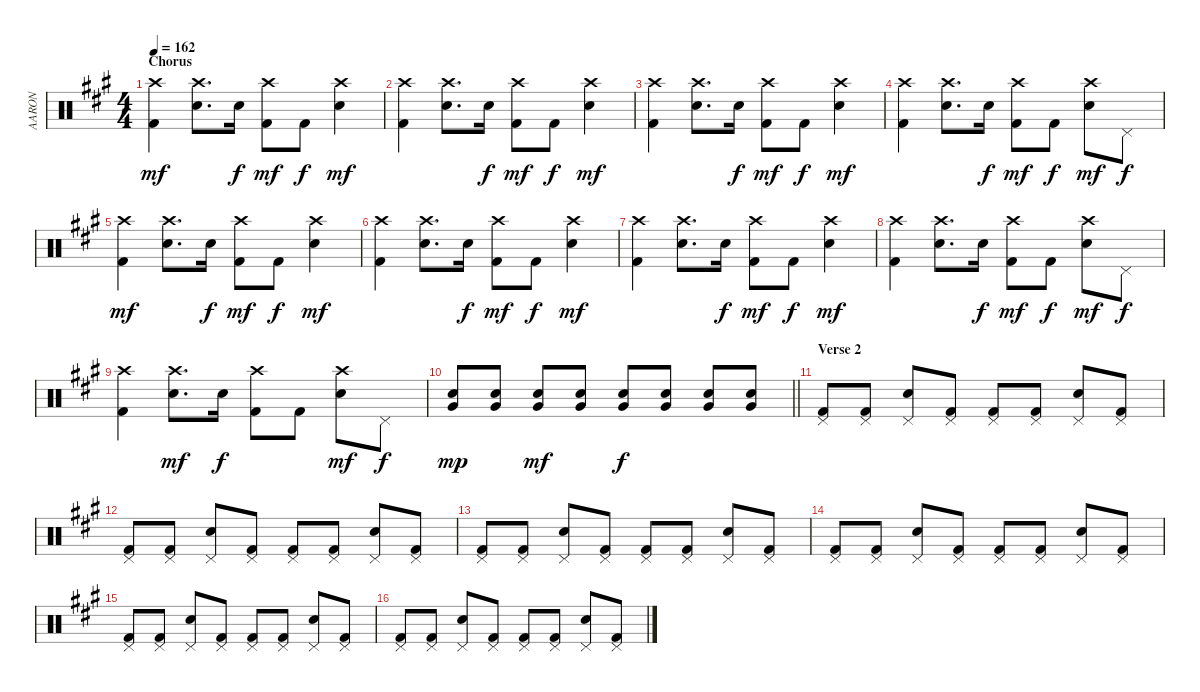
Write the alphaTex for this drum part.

\track ("AARON" "AARON") {instrument percussion}
\staff {score}
\articulation defaults
\ts (4 4)
\section ("" "Chorus")
\tempo 162
\clef neutral
\ks a
("Crash high (hit)" "Kick (hit) 2").4{dy mf} ("Crash high (hit)" "Electric Snare (hit)").8{d} "Electric Snare (hit)".16{dy f} ("Crash high (hit)" "Kick (hit) 2").8{dy mf} "Kick (hit) 2".8{dy f} ("Crash high (hit)" "Electric Snare (hit)").4{dy mf} |
("Crash high (hit)" "Kick (hit) 2").4 ("Crash high (hit)" "Electric Snare (hit)").8{d} "Electric Snare (hit)".16{dy f} ("Crash high (hit)" "Kick (hit) 2").8{dy mf} "Kick (hit) 2".8{dy f} ("Crash high (hit)" "Electric Snare (hit)").4{dy mf} |
("Crash high (hit)" "Kick (hit) 2").4 ("Crash high (hit)" "Electric Snare (hit)").8{d} "Electric Snare (hit)".16{dy f} ("Crash high (hit)" "Kick (hit) 2").8{dy mf} "Kick (hit) 2".8{dy f} ("Crash high (hit)" "Electric Snare (hit)").4{dy mf} |
("Crash high (hit)" "Kick (hit) 2").4 ("Crash high (hit)" "Electric Snare (hit)").8{d} "Electric Snare (hit)".16{dy f} ("Crash high (hit)" "Kick (hit) 2").8{dy mf} "Kick (hit) 2".8{dy f} ("Crash high (hit)" "Electric Snare (hit)").8{dy mf} "Pedal Hi-Hat (hit)".8{dy f} |
("Crash high (hit)" "Kick (hit) 2").4{dy mf} ("Crash high (hit)" "Electric Snare (hit)").8{d} "Electric Snare (hit)".16{dy f} ("Crash high (hit)" "Kick (hit) 2").8{dy mf} "Kick (hit) 2".8{dy f} ("Crash high (hit)" "Electric Snare (hit)").4{dy mf} |
("Crash high (hit)" "Kick (hit) 2").4 ("Crash high (hit)" "Electric Snare (hit)").8{d} "Electric Snare (hit)".16{dy f} ("Crash high (hit)" "Kick (hit) 2").8{dy mf} "Kick (hit) 2".8{dy f} ("Crash high (hit)" "Electric Snare (hit)").4{dy mf} |
("Crash high (hit)" "Kick (hit) 2").4 ("Crash high (hit)" "Electric Snare (hit)").8{d} "Electric Snare (hit)".16{dy f} ("Crash high (hit)" "Kick (hit) 2").8{dy mf} "Kick (hit) 2".8{dy f} ("Crash high (hit)" "Electric Snare (hit)").4{dy mf} |
("Crash high (hit)" "Kick (hit) 2").4 ("Crash high (hit)" "Electric Snare (hit)").8{d} "Electric Snare (hit)".16{dy f} ("Crash high (hit)" "Kick (hit) 2").8{dy mf} "Kick (hit) 2".8{dy f} ("Crash high (hit)" "Electric Snare (hit)").8{dy mf} "Pedal Hi-Hat (hit)".8{dy f} |
("Crash high (hit)" "Kick (hit) 2").4 ("Crash high (hit)" "Electric Snare (hit)").8{d dy mf} "Electric Snare (hit)".16{dy f} ("Crash high (hit)" "Kick (hit) 2").8 "Kick (hit) 2".8 ("Crash high (hit)" "Electric Snare (hit)").8{dy mf} "Pedal Hi-Hat (hit)".8{dy f} |
\barLineRight lightlight
("Electric Snare (hit)" "Very Low Tom (hit)").8{dy mp} ("Electric Snare (hit)" "Very Low Tom (hit)").8 ("Electric Snare (hit)" "Very Low Tom (hit)").8{dy mf} ("Electric Snare (hit)" "Very Low Tom (hit)").8 ("Electric Snare (hit)" "Very Low Tom (hit)").8{dy f} ("Electric Snare (hit)" "Very Low Tom (hit)").8 ("Electric Snare (hit)" "Very Low Tom (hit)").8 ("Electric Snare (hit)" "Very Low Tom (hit)").8 |
\section ("" "Verse 2")
("Pedal Hi-Hat (hit)" "Kick (hit) 2").8 ("Pedal Hi-Hat (hit)" "Kick (hit) 2").8 ("Pedal Hi-Hat (hit)" "Electric Snare (hit)").8 ("Pedal Hi-Hat (hit)" "Kick (hit) 2").8 ("Pedal Hi-Hat (hit)" "Kick (hit) 2").8 ("Pedal Hi-Hat (hit)" "Kick (hit) 2").8 ("Pedal Hi-Hat (hit)" "Electric Snare (hit)").8 ("Pedal Hi-Hat (hit)" "Kick (hit) 2").8 |
("Pedal Hi-Hat (hit)" "Kick (hit) 2").8 ("Pedal Hi-Hat (hit)" "Kick (hit) 2").8 ("Pedal Hi-Hat (hit)" "Electric Snare (hit)").8 ("Pedal Hi-Hat (hit)" "Kick (hit) 2").8 ("Pedal Hi-Hat (hit)" "Kick (hit) 2").8 ("Pedal Hi-Hat (hit)" "Kick (hit) 2").8 ("Pedal Hi-Hat (hit)" "Electric Snare (hit)").8 ("Pedal Hi-Hat (hit)" "Kick (hit) 2").8 |
("Pedal Hi-Hat (hit)" "Kick (hit) 2").8 ("Pedal Hi-Hat (hit)" "Kick (hit) 2").8 ("Pedal Hi-Hat (hit)" "Electric Snare (hit)").8 ("Pedal Hi-Hat (hit)" "Kick (hit) 2").8 ("Pedal Hi-Hat (hit)" "Kick (hit) 2").8 ("Pedal Hi-Hat (hit)" "Kick (hit) 2").8 ("Pedal Hi-Hat (hit)" "Electric Snare (hit)").8 ("Pedal Hi-Hat (hit)" "Kick (hit) 2").8 |
("Pedal Hi-Hat (hit)" "Kick (hit) 2").8 ("Pedal Hi-Hat (hit)" "Kick (hit) 2").8 ("Pedal Hi-Hat (hit)" "Electric Snare (hit)").8 ("Pedal Hi-Hat (hit)" "Kick (hit) 2").8 ("Pedal Hi-Hat (hit)" "Kick (hit) 2").8 ("Pedal Hi-Hat (hit)" "Kick (hit) 2").8 ("Pedal Hi-Hat (hit)" "Electric Snare (hit)").8 ("Pedal Hi-Hat (hit)" "Kick (hit) 2").8 |
("Pedal Hi-Hat (hit)" "Kick (hit) 2").8 ("Pedal Hi-Hat (hit)" "Kick (hit) 2").8 ("Pedal Hi-Hat (hit)" "Electric Snare (hit)").8 ("Pedal Hi-Hat (hit)" "Kick (hit) 2").8 ("Pedal Hi-Hat (hit)" "Kick (hit) 2").8 ("Pedal Hi-Hat (hit)" "Kick (hit) 2").8 ("Pedal Hi-Hat (hit)" "Electric Snare (hit)").8 ("Pedal Hi-Hat (hit)" "Kick (hit) 2").8 |
("Pedal Hi-Hat (hit)" "Kick (hit) 2").8 ("Pedal Hi-Hat (hit)" "Kick (hit) 2").8 ("Pedal Hi-Hat (hit)" "Electric Snare (hit)").8 ("Pedal Hi-Hat (hit)" "Kick (hit) 2").8 ("Pedal Hi-Hat (hit)" "Kick (hit) 2").8 ("Pedal Hi-Hat (hit)" "Kick (hit) 2").8 ("Pedal Hi-Hat (hit)" "Electric Snare (hit)").8 ("Pedal Hi-Hat (hit)" "Kick (hit) 2").8
